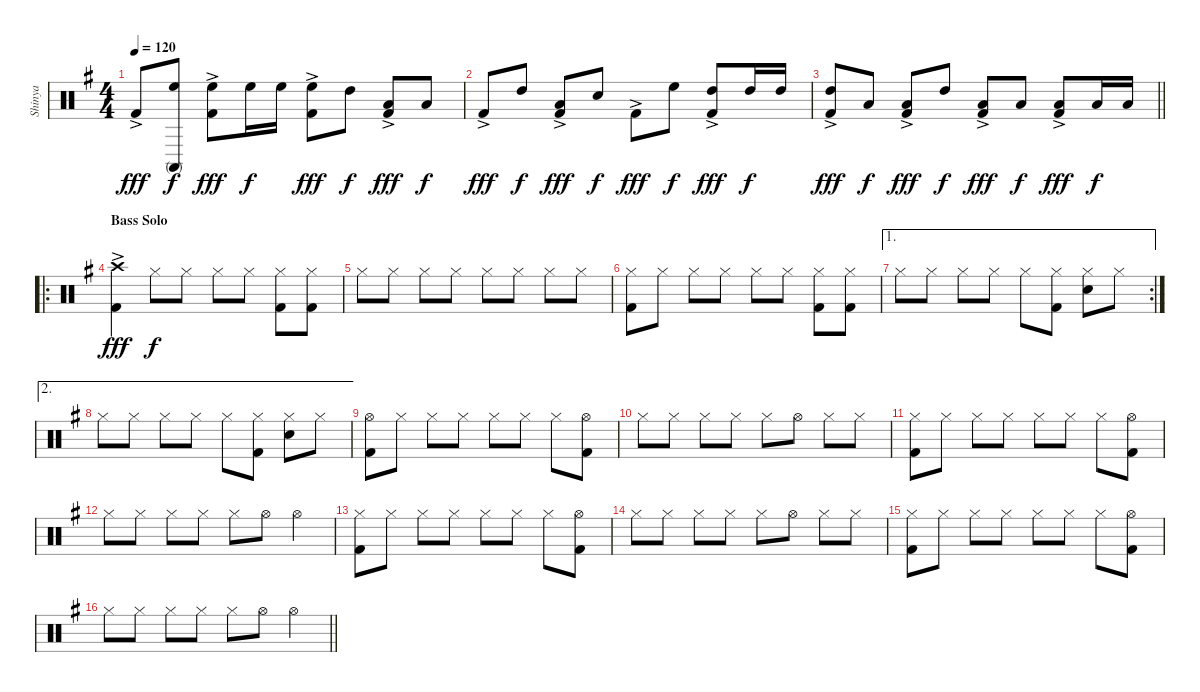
\track ("Shinya" "Shinya") {instrument percussion}
\staff {score}
\articulation defaults
\ts (4 4)
\tempo 120
\clef neutral
\ks g "Kick (hit) 2"{ac}.8{dy fff}
("Conga high (mute)" "High Floor Tom (hit)").8{dy f} ("High Floor Tom (hit)" "Kick (hit) 2"{ac}).8{dy fff} "High Floor Tom (hit)".16{dy f} "High Floor Tom (hit)".16 ("High Floor Tom (hit)" "Kick (hit) 2"{ac}).8{dy fff} "High Tom (hit)".8{dy f} ("Low Tom (hit)" "Kick (hit) 2"{ac}).8{dy fff} "Low Floor Tom (hit)".8{dy f} |
"Kick (hit) 2"{ac}.8{dy fff} "High Tom (hit)".8{dy f} ("Low Tom (hit)" "Kick (hit) 2"{ac}).8{dy fff} "Snare (hit) 2".8{dy f} "Kick (hit) 2"{ac}.8{dy fff} "High Floor Tom (hit)".8{dy f} ("High Tom (hit)" "Kick (hit) 2"{ac}).8{dy fff} "High Tom (hit)".16{dy f} "High Tom (hit)".16 |
\barLineRight lightlight
("High Tom (hit)" "Kick (hit) 2"{ac}).8{dy fff} "Low Tom (hit)".8{dy f} ("Low Floor Tom (hit)" "Kick (hit) 2"{ac}).8{dy fff} "High Tom (hit)".8{dy f} ("Low Tom (hit)" "Kick (hit) 2"{ac}).8{dy fff} "Low Floor Tom (hit)".8{dy f} ("Low Floor Tom (hit)" "Kick (hit) 2"{ac}).8{dy fff} "Low Floor Tom (hit)".16{dy f} "Low Floor Tom (hit)".16 |
\ro
\section ("" "Bass Solo")
("Crash high (hit)"{ac} "Kick (hit) 2").4{dy fff} "Hi-Hat (closed)".8{dy f} "Hi-Hat (closed)".8 "Hi-Hat (closed)".8 "Hi-Hat (closed)".8 ("Hi-Hat (closed)" "Kick (hit) 2").8 ("Hi-Hat (closed)" "Kick (hit) 2").8 |
"Hi-Hat (closed)".8 "Hi-Hat (closed)".8 "Hi-Hat (closed)".8 "Hi-Hat (closed)".8 "Hi-Hat (closed)".8 "Hi-Hat (closed)".8 "Hi-Hat (closed)".8 "Hi-Hat (closed)".8 |
("Hi-Hat (closed)" "Kick (hit) 2").8 "Hi-Hat (closed)".8 "Hi-Hat (closed)".8 "Hi-Hat (closed)".8 "Hi-Hat (closed)".8 "Hi-Hat (closed)".8 ("Hi-Hat (closed)" "Kick (hit) 2").8 ("Hi-Hat (closed)" "Kick (hit) 2").8 |
\ae 1
\rc 2 "Hi-Hat (closed)".8 "Hi-Hat (closed)".8 "Hi-Hat (closed)".8 "Hi-Hat (closed)".8 "Hi-Hat (closed)".8
("Hi-Hat (closed)" "Kick (hit) 2").8 ("Hi-Hat (closed)" "Snare (hit) 2").8 "Hi-Hat (closed)".8 |
\ae 2 "Hi-Hat (closed)".8 "Hi-Hat (closed)".8 "Hi-Hat (closed)".8 "Hi-Hat (closed)".8 "Hi-Hat (closed)".8
("Hi-Hat (closed)" "Kick (hit) 2").8 ("Hi-Hat (closed)" "Snare (hit) 2").8 "Hi-Hat (closed)".8 |
("Hi-Hat (open)" "Kick (hit) 2").8 "Hi-Hat (closed)".8 "Hi-Hat (closed)".8 "Hi-Hat (closed)".8 "Hi-Hat (closed)".8 "Hi-Hat (closed)".8 "Hi-Hat (closed)".8 ("Hi-Hat (open)" "Kick (hit) 2").8 |
"Hi-Hat (closed)".8 "Hi-Hat (closed)".8 "Hi-Hat (closed)".8 "Hi-Hat (closed)".8 "Hi-Hat (closed)".8 "Hi-Hat (open)".8 "Hi-Hat (closed)".8 "Hi-Hat (closed)".8 |
("Hi-Hat (closed)" "Kick (hit) 2").8 "Hi-Hat (closed)".8 "Hi-Hat (closed)".8 "Hi-Hat (closed)".8 "Hi-Hat (closed)".8 "Hi-Hat (closed)".8 "Hi-Hat (closed)".8 ("Hi-Hat (open)" "Kick (hit) 2").8 |
"Hi-Hat (closed)".8 "Hi-Hat (closed)".8 "Hi-Hat (closed)".8 "Hi-Hat (closed)".8 "Hi-Hat (closed)".8 "Hi-Hat (open)".8 "Hi-Hat (open)".4 |
("Hi-Hat (closed)" "Kick (hit) 2").8 "Hi-Hat (closed)".8 "Hi-Hat (closed)".8 "Hi-Hat (closed)".8 "Hi-Hat (closed)".8 "Hi-Hat (closed)".8 "Hi-Hat (closed)".8 ("Hi-Hat (open)" "Kick (hit) 2").8 |
"Hi-Hat (closed)".8 "Hi-Hat (closed)".8 "Hi-Hat (closed)".8 "Hi-Hat (closed)".8 "Hi-Hat (closed)".8 "Hi-Hat (open)".8 "Hi-Hat (closed)".8 "Hi-Hat (closed)".8 |
("Hi-Hat (closed)" "Kick (hit) 2").8 "Hi-Hat (closed)".8 "Hi-Hat (closed)".8 "Hi-Hat (closed)".8 "Hi-Hat (closed)".8 "Hi-Hat (closed)".8 "Hi-Hat (closed)".8 ("Hi-Hat (open)" "Kick (hit) 2").8 |
\barLineRight lightlight "Hi-Hat (closed)".8 "Hi-Hat (closed)".8 "Hi-Hat (closed)".8 "Hi-Hat (closed)".8 "Hi-Hat (closed)".8 "Hi-Hat (open)".8 "Hi-Hat (open)".4
